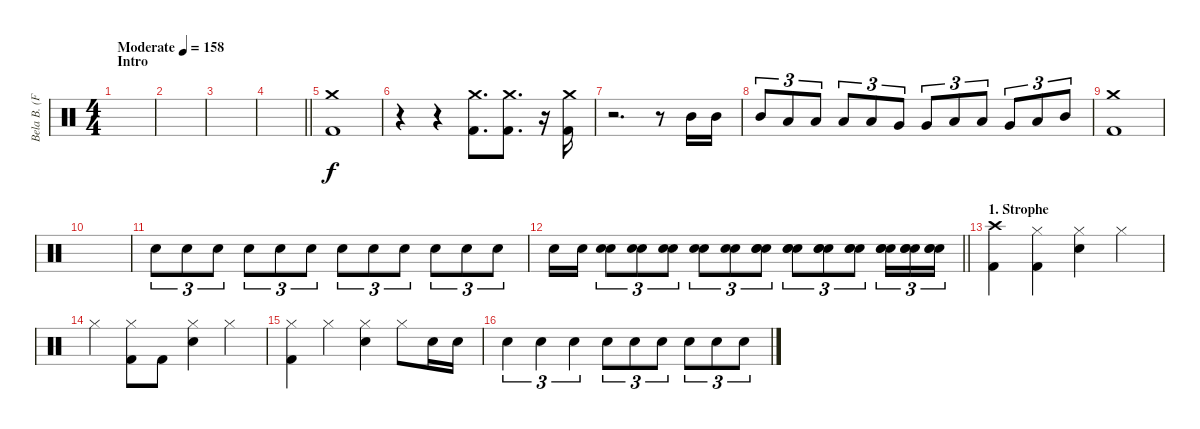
\track ("Bela B. (Felsenheimer)" "Bela B. (F") {instrument percussion}
\staff {score}
\articulation defaults
\ts (4 4)
\section ("" "Intro")
\tempo (158 "Moderate")
\clef neutral
\ks c
|
|
|
\barLineRight lightlight
|
("Crash medium (hit)" "Kick (hit) 2").1 |
r.4 r.4 ("Crash medium (hit)" "Kick (hit) 2").8{d} ("Crash medium (hit)" "Kick (hit) 2").8{d} r.16 ("Crash medium (hit)" "Kick (hit) 2").16 |
r.2{d} r.8 "Mid Tom (hit)".16 "Mid Tom (hit)".16 |
"Mid Tom (hit)".8{tu (3 2)} "Low Tom (hit)".8{tu (3 2)} "Low Tom (hit)".8{tu (3 2)} "Low Tom (hit)".8{tu (3 2)} "Low Tom (hit)".8{tu (3 2)} "Very Low Tom (hit)".8{tu (3 2)} "Very Low Tom (hit)".8{tu (3 2)} "Low Floor Tom (hit)".8{tu (3 2)} "Low Floor Tom (hit)".8{tu (3 2)} "Very Low Tom (hit)".8{tu (3 2)} "Low Tom (hit)".8{tu (3 2)} "Mid Tom (hit)".8{tu (3 2)} |
("Crash medium (hit)" "Kick (hit) 2").1 |
|
"Electric Snare (hit)".8{tu (3 2)} "Electric Snare (hit)".8{tu (3 2)} "Electric Snare (hit)".8{tu (3 2)} "Electric Snare (hit)".8{tu (3 2)} "Electric Snare (hit)".8{tu (3 2)} "Electric Snare (hit)".8{tu (3 2)} "Electric Snare (hit)".8{tu (3 2)} "Electric Snare (hit)".8{tu (3 2)} "Electric Snare (hit)".8{tu (3 2)} "Electric Snare (hit)".8{tu (3 2)} "Electric Snare (hit)".8{tu (3 2)} "Electric Snare (hit)".8{tu (3 2)} |
\barLineRight lightlight "Electric Snare (hit)".16 "Electric Snare (hit)".16
("Electric Snare (hit)" "Electric Snare (hit)").8{tu (3 2)} ("Electric Snare (hit)" "Electric Snare (hit)").8{tu (3 2)} ("Electric Snare (hit)" "Electric Snare (hit)").8{tu (3 2)} ("Electric Snare (hit)" "Electric Snare (hit)").8{tu (3 2)} ("Electric Snare (hit)" "Electric Snare (hit)").8{tu (3 2)} ("Electric Snare (hit)" "Electric Snare (hit)" "Electric Snare (hit)").8{tu (3 2)} ("Electric Snare (hit)" "Electric Snare (hit)" "Electric Snare (hit)").8{tu (3 2)} ("Electric Snare (hit)" "Electric Snare (hit)" "Electric Snare (hit)").8{tu (3 2)} ("Electric Snare (hit)" "Electric Snare (hit)" "Electric Snare (hit)").8{tu (3 2)} ("Electric Snare (hit)" "Electric Snare (hit)" "Electric Snare (hit)").16{tu (3 2)} ("Electric Snare (hit)" "Electric Snare (hit)" "Electric Snare (hit)").16{tu (3 2)} ("Electric Snare (hit)" "Electric Snare (hit)" "Electric Snare (hit)").16{tu (3 2)} |
\section ("" "1. Strophe")
("Crash high (hit)" "Kick (hit) 2").4 ("Hi-Hat (closed)" "Kick (hit) 2").4 ("Hi-Hat (closed)" "Electric Snare (hit)").4 "Hi-Hat (closed)".4 |
"Hi-Hat (closed)".4 ("Kick (hit) 2" "Hi-Hat (closed)").8 "Kick (hit) 2".8 ("Electric Snare (hit)" "Hi-Hat (closed)").4 "Hi-Hat (closed)".4 |
("Hi-Hat (closed)" "Kick (hit) 2").4 "Hi-Hat (closed)".4 ("Hi-Hat (closed)" "Electric Snare (hit)").4 "Hi-Hat (closed)".8 "Electric Snare (hit)".16 "Electric Snare (hit)".16 |
"Electric Snare (hit)".4{tu (3 2)} "Electric Snare (hit)".4{tu (3 2)} "Electric Snare (hit)".4{tu (3 2)} "Electric Snare (hit)".8{tu (3 2)} "Electric Snare (hit)".8{tu (3 2)} "Electric Snare (hit)".8{tu (3 2)} "Electric Snare (hit)".8{tu (3 2)} "Electric Snare (hit)".8{tu (3 2)} "Electric Snare (hit)".8{tu (3 2)}
